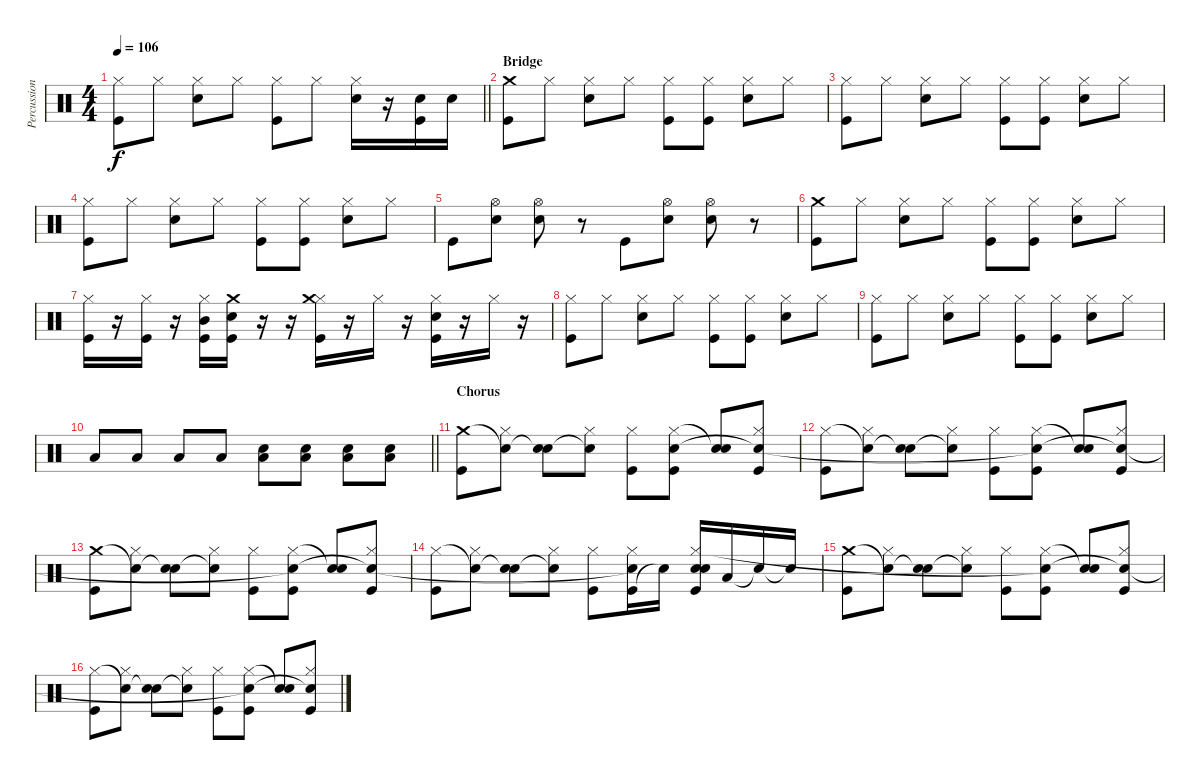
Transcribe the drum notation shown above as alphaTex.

\track ("Percussion" "Percussion") {instrument percussion}
\staff {score}
\articulation defaults
\ts (4 4)
\tempo 106
\clef neutral
\barLineRight lightlight
\ks c
("Kick (hit)" "Hi-Hat (closed)").8{dy f} "Hi-Hat (closed)".8 ("Electric Snare (hit)" "Hi-Hat (closed)").8 "Hi-Hat (closed)".8 ("Kick (hit)" "Hi-Hat (closed)").8 "Hi-Hat (closed)".8 ("Electric Snare (hit)" "Hi-Hat (closed)").16 r.16 ("Kick (hit)" "Electric Snare (hit)").16 "Electric Snare (hit)".16 |
\section ("" "Bridge")
("Kick (hit)" "Crash medium (hit)").8 "Hi-Hat (closed)".8 ("Electric Snare (hit)" "Hi-Hat (closed)").8 "Hi-Hat (closed)".8 ("Kick (hit)" "Hi-Hat (closed)").8 ("Kick (hit)" "Hi-Hat (closed)").8 ("Electric Snare (hit)" "Hi-Hat (closed)").8 "Hi-Hat (closed)".8 |
("Kick (hit)" "Hi-Hat (closed)").8 "Hi-Hat (closed)".8 ("Electric Snare (hit)" "Hi-Hat (closed)").8 "Hi-Hat (closed)".8 ("Kick (hit)" "Hi-Hat (closed)").8 ("Kick (hit)" "Hi-Hat (closed)").8 ("Electric Snare (hit)" "Hi-Hat (closed)").8 "Hi-Hat (closed)".8 |
("Kick (hit)" "Hi-Hat (closed)").8 "Hi-Hat (closed)".8 ("Electric Snare (hit)" "Hi-Hat (closed)").8 "Hi-Hat (closed)".8 ("Kick (hit)" "Hi-Hat (closed)").8 ("Kick (hit)" "Hi-Hat (closed)").8 ("Electric Snare (hit)" "Hi-Hat (closed)").8 "Hi-Hat (closed)".8 |
"Kick (hit)".8 ("Electric Snare (hit)" "Hi-Hat (open)").8 ("Electric Snare (hit)" "Hi-Hat (open)").8 r.8 "Kick (hit)".8 ("Electric Snare (hit)" "Hi-Hat (open)").8 ("Electric Snare (hit)" "Hi-Hat (open)").8 r.8 |
("Kick (hit)" "Crash medium (hit)").8 "Hi-Hat (closed)".8 ("Electric Snare (hit)" "Hi-Hat (closed)").8 "Hi-Hat (closed)".8 ("Kick (hit)" "Hi-Hat (closed)").8 ("Kick (hit)" "Hi-Hat (closed)").8 ("Electric Snare (hit)" "Hi-Hat (closed)").8 "Hi-Hat (closed)".8 |
("Kick (hit)" "Hi-Hat (closed)").16 r.16 ("Kick (hit)" "Hi-Hat (closed)").16 r.16 ("Kick (hit)" "Mid Tom (hit)" "Hi-Hat (closed)").16 ("Kick (hit)" "Electric Snare (hit)" "Crash medium (hit)").16 r.16 r.16 ("Kick (hit)" "Hi-Hat (closed)" "Crash medium (hit)").16 r.16 "Hi-Hat (closed)".16 r.16 ("Kick (hit)" "Electric Snare (hit)" "Hi-Hat (closed)").16 r.16 "Hi-Hat (closed)".16 r.16 |
("Kick (hit)" "Hi-Hat (closed)").8 "Hi-Hat (closed)".8 ("Electric Snare (hit)" "Hi-Hat (closed)").8 "Hi-Hat (closed)".8 ("Kick (hit)" "Hi-Hat (closed)").8 ("Kick (hit)" "Hi-Hat (closed)").8 ("Electric Snare (hit)" "Hi-Hat (closed)").8 "Hi-Hat (closed)".8 |
("Kick (hit)" "Hi-Hat (closed)").8 "Hi-Hat (closed)".8 ("Electric Snare (hit)" "Hi-Hat (closed)").8 "Hi-Hat (closed)".8 ("Kick (hit)" "Hi-Hat (closed)").8 ("Kick (hit)" "Hi-Hat (closed)").8 ("Electric Snare (hit)" "Hi-Hat (closed)").8 "Hi-Hat (closed)".8 |
\barLineRight lightlight "Low Tom (hit)".8 "Low Tom (hit)".8 "Low Tom (hit)".8 "Low Tom (hit)".8
("Electric Snare (hit)" "Low Tom (hit)").8 ("Electric Snare (hit)" "Low Tom (hit)").8 ("Electric Snare (hit)" "Low Tom (hit)").8 ("Electric Snare (hit)" "Low Tom (hit)").8 |
\section ("" "Chorus")
("Kick (hit)" "Crash medium (hit)").8 ("Hi-Hat (closed)" "Snare (hit)"{t}).8 ("Electric Snare (hit)" "Snare (hit)"{t}).8 ("Hi-Hat (closed)" "Snare (hit)"{t}).8 ("Kick (hit)" "Hi-Hat (closed)").8 ("Kick (hit)" "Hi-Hat (closed)" "Snare (hit)").8 ("Electric Snare (hit)" "Snare (hit)"{t}).8 ("Kick (hit)" "Hi-Hat (closed)" "Snare (hit)"{t}).8 |
("Kick (hit)" "Hi-Hat (closed)").8 ("Hi-Hat (closed)" "Snare (hit)"{t}).8 ("Electric Snare (hit)" "Snare (hit)"{t}).8 ("Hi-Hat (closed)" "Snare (hit)"{t}).8 ("Kick (hit)" "Hi-Hat (closed)").8 ("Kick (hit)" "Hi-Hat (closed)" "Snare (hit)"{t}).8 ("Electric Snare (hit)" "Snare (hit)"{t}).8 ("Kick (hit)" "Hi-Hat (closed)" "Snare (hit)"{t}).8 |
("Kick (hit)" "Crash medium (hit)").8 ("Hi-Hat (closed)" "Snare (hit)"{t}).8 ("Electric Snare (hit)" "Snare (hit)"{t}).8 ("Hi-Hat (closed)" "Snare (hit)"{t}).8 ("Kick (hit)" "Hi-Hat (closed)").8 ("Kick (hit)" "Hi-Hat (closed)" "Snare (hit)"{t}).8 ("Electric Snare (hit)" "Snare (hit)"{t}).8 ("Kick (hit)" "Hi-Hat (closed)" "Snare (hit)"{t}).8 |
("Kick (hit)" "Hi-Hat (closed)").8 ("Hi-Hat (closed)" "Snare (hit)"{t}).8 ("Electric Snare (hit)" "Snare (hit)"{t}).8 ("Hi-Hat (closed)" "Snare (hit)"{t}).8 ("Kick (hit)" "Hi-Hat (closed)").8 ("Kick (hit)" "Hi-Hat (closed)" "Snare (hit)"{t}).16 "Snare (hit)"{t}.16 ("Kick (hit)" "Electric Snare (hit)" "Hi-Hat (closed)" "Snare (hit)").16 "Low Tom (hit)".16 "Snare (hit)"{t}.16 "Snare (hit)"{t}.16 |
("Kick (hit)" "Crash medium (hit)").8 ("Hi-Hat (closed)" "Snare (hit)"{t}).8 ("Electric Snare (hit)" "Snare (hit)"{t}).8 ("Hi-Hat (closed)" "Snare (hit)"{t}).8 ("Kick (hit)" "Hi-Hat (closed)").8 ("Kick (hit)" "Hi-Hat (closed)" "Snare (hit)"{t}).8 ("Electric Snare (hit)" "Snare (hit)"{t}).8 ("Kick (hit)" "Hi-Hat (closed)" "Snare (hit)"{t}).8 |
("Kick (hit)" "Hi-Hat (closed)").8 ("Hi-Hat (closed)" "Snare (hit)"{t}).8 ("Electric Snare (hit)" "Snare (hit)"{t}).8 ("Hi-Hat (closed)" "Snare (hit)"{t}).8 ("Kick (hit)" "Hi-Hat (closed)").8 ("Kick (hit)" "Hi-Hat (closed)" "Snare (hit)"{t}).8 ("Electric Snare (hit)" "Snare (hit)"{t}).8 ("Kick (hit)" "Hi-Hat (closed)" "Snare (hit)"{t}).8
